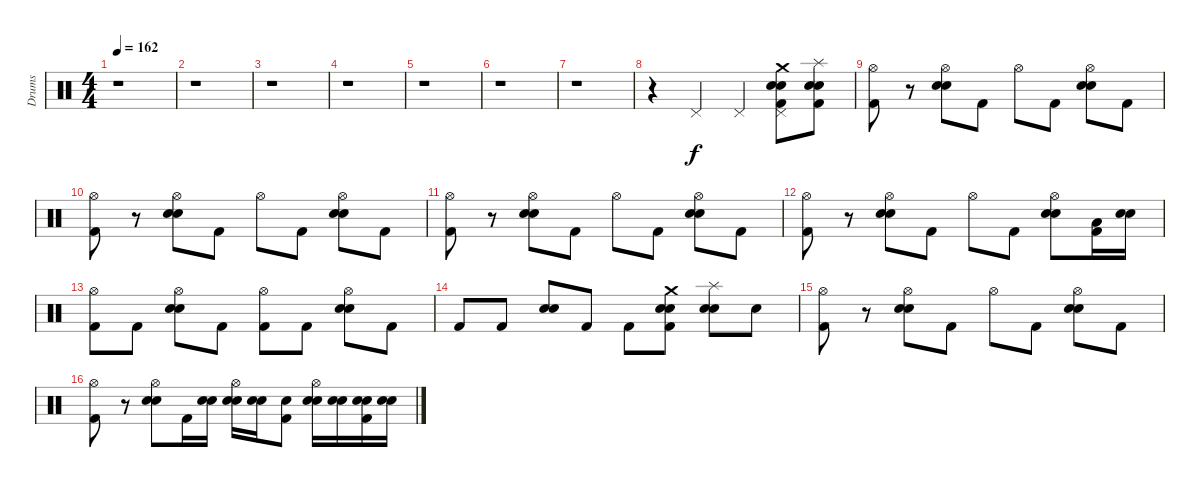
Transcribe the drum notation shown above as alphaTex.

\track ("Drums" "Drums") {instrument percussion}
\staff {score}
\articulation defaults
\ts (4 4)
\tempo 162
\clef neutral
\ks c
r.1{dy f} |
r.1 |
r.1 |
r.1 |
r.1 |
r.1 |
r.1 |
r.4 "Pedal Hi-Hat (hit)".4 "Pedal Hi-Hat (hit)".4 ("Pedal Hi-Hat (hit)" "Electric Snare (hit)" "Snare (hit) 2" "Kick (hit) 2" "Crash medium (hit)").8 ("Electric Snare (hit)" "Snare (hit) 2" "Kick (hit) 2" "Splash (hit)").8 |
("Hi-Hat (open)" "Kick (hit) 2").8 r.8 ("Hi-Hat (open)" "Electric Snare (hit)" "Snare (hit) 2").8 "Kick (hit) 2".8 "Hi-Hat (open)".8 "Kick (hit) 2".8 ("Hi-Hat (open)" "Electric Snare (hit)" "Snare (hit) 2").8 "Kick (hit) 2".8 |
("Hi-Hat (open)" "Kick (hit) 2").8 r.8 ("Hi-Hat (open)" "Electric Snare (hit)" "Snare (hit) 2").8 "Kick (hit) 2".8 "Hi-Hat (open)".8 "Kick (hit) 2".8 ("Hi-Hat (open)" "Electric Snare (hit)" "Snare (hit) 2").8 "Kick (hit) 2".8 |
("Hi-Hat (open)" "Kick (hit) 2").8 r.8 ("Hi-Hat (open)" "Electric Snare (hit)" "Snare (hit) 2").8 "Kick (hit) 2".8 "Hi-Hat (open)".8 "Kick (hit) 2".8 ("Hi-Hat (open)" "Electric Snare (hit)" "Snare (hit) 2").8 "Kick (hit) 2".8 |
("Hi-Hat (open)" "Kick (hit) 2").8 r.8 ("Hi-Hat (open)" "Electric Snare (hit)" "Snare (hit) 2").8 "Kick (hit) 2".8 "Hi-Hat (open)".8 "Kick (hit) 2".8 ("Hi-Hat (open)" "Electric Snare (hit)" "Snare (hit) 2").8 ("Kick (hit) 2" "Low Floor Tom (hit)").16 ("Electric Snare (hit)" "Snare (hit) 2").16 |
("Kick (hit) 2" "Hi-Hat (open)").8 "Kick (hit) 2".8 ("Snare (hit) 2" "Electric Snare (hit)" "Hi-Hat (open)").8 "Kick (hit) 2".8 ("Kick (hit) 2" "Hi-Hat (open)").8 "Kick (hit) 2".8 ("Electric Snare (hit)" "Snare (hit) 2" "Hi-Hat (open)").8 "Kick (hit) 2".8 |
"Kick (hit) 2".8 "Kick (hit) 2".8 ("Electric Snare (hit)" "Snare (hit) 2").8 "Kick (hit) 2".8 "Kick (hit) 2".8 ("Electric Snare (hit)" "Snare (hit) 2" "Crash medium (hit)" "Kick (hit) 2").8 ("Splash (hit)" "Electric Snare (hit)" "Snare (hit) 2").8 "Snare (hit) 2".8 |
("Hi-Hat (open)" "Kick (hit) 2").8 r.8 ("Hi-Hat (open)" "Electric Snare (hit)" "Snare (hit) 2").8 "Kick (hit) 2".8 "Hi-Hat (open)".8 "Kick (hit) 2".8 ("Hi-Hat (open)" "Electric Snare (hit)" "Snare (hit) 2").8 "Kick (hit) 2".8 |
("Hi-Hat (open)" "Kick (hit) 2").8 r.8 ("Hi-Hat (open)" "Electric Snare (hit)" "Snare (hit) 2").8 "Kick (hit) 2".16 ("Electric Snare (hit)" "Snare (hit) 2").16 ("Hi-Hat (open)" "Electric Snare (hit)" "Snare (hit) 2").16 ("Electric Snare (hit)" "Snare (hit) 2").16 ("Kick (hit) 2" "Snare (hit) 2").8 ("Hi-Hat (open)" "Electric Snare (hit)" "Snare (hit) 2").16 ("Electric Snare (hit)" "Snare (hit) 2").16 ("Kick (hit) 2" "Electric Snare (hit)" "Snare (hit) 2").16 ("Electric Snare (hit)" "Snare (hit) 2").16
